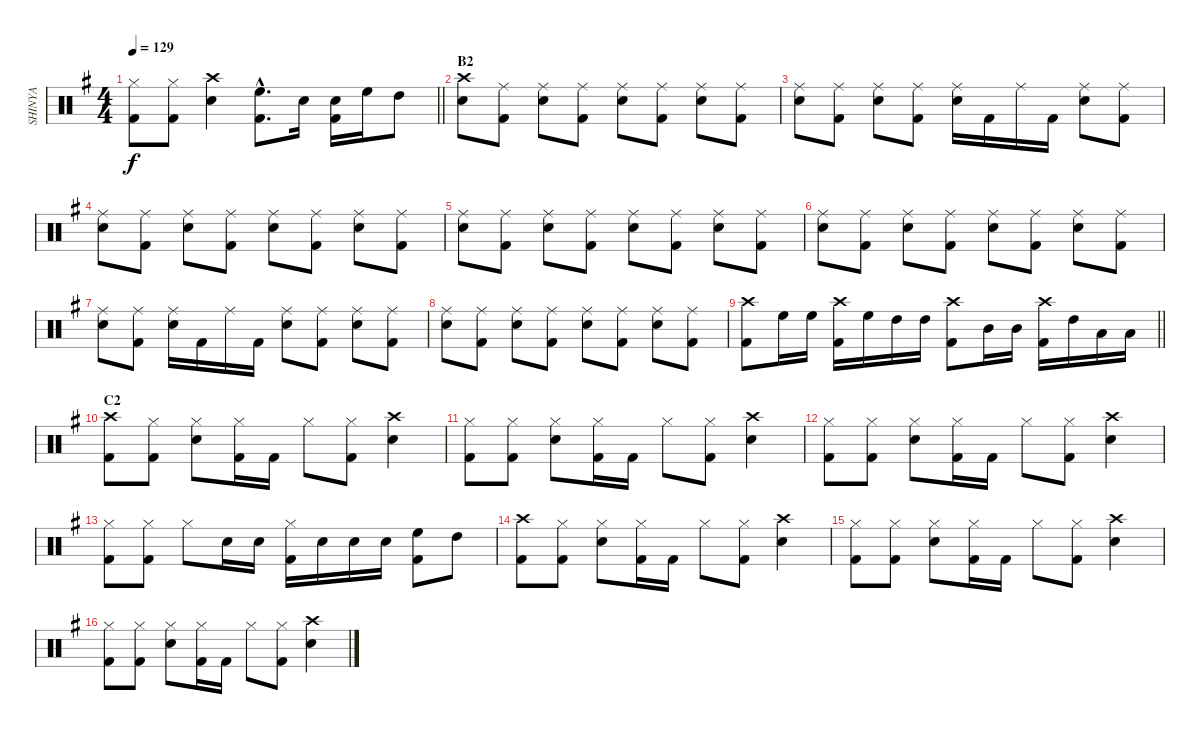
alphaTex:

\track ("SHINYA" "SHINYA") {instrument percussion}
\staff {score}
\articulation defaults
\ts (4 4)
\tempo 129
\clef neutral
\barLineRight lightlight
\ks g
("Hi-Hat (closed)" "Kick (hit) 2").8{dy f} ("Hi-Hat (closed)" "Kick (hit) 2").8 ("Crash high (hit)" "Snare (hit) 2").4 ("High Floor Tom (hit)"{hac} "Kick (hit) 2"{hac}).8{d} "Snare (hit) 2".16 ("Snare (hit) 2" "Kick (hit) 2").16 "High Floor Tom (hit)".16 "High Tom (hit)".8 |
\section ("" "B2")
("Crash high (hit)" "Snare (hit) 2").8 ("Ride (middle)" "Kick (hit) 2").8 ("Ride (middle)" "Snare (hit) 2").8 ("Ride (middle)" "Kick (hit) 2").8 ("Ride (middle)" "Snare (hit) 2").8 ("Ride (middle)" "Kick (hit) 2").8 ("Ride (middle)" "Snare (hit) 2").8 ("Ride (middle)" "Kick (hit) 2").8 |
("Ride (middle)" "Snare (hit) 2").8 ("Ride (middle)" "Kick (hit) 2").8 ("Ride (middle)" "Snare (hit) 2").8 ("Ride (middle)" "Kick (hit) 2").8 ("Ride (middle)" "Snare (hit) 2").16 "Kick (hit) 2".16 "Ride (middle)".16 "Kick (hit) 2".16 ("Ride (middle)" "Snare (hit) 2").8 ("Ride (middle)" "Kick (hit) 2").8 |
("Ride (middle)" "Snare (hit) 2").8 ("Ride (middle)" "Kick (hit) 2").8 ("Ride (middle)" "Snare (hit) 2").8 ("Ride (middle)" "Kick (hit) 2").8 ("Ride (middle)" "Snare (hit) 2").8 ("Ride (middle)" "Kick (hit) 2").8 ("Ride (middle)" "Snare (hit) 2").8 ("Ride (middle)" "Kick (hit) 2").8 |
("Ride (middle)" "Snare (hit) 2").8 ("Ride (middle)" "Kick (hit) 2").8 ("Ride (middle)" "Snare (hit) 2").8 ("Ride (middle)" "Kick (hit) 2").8 ("Ride (middle)" "Snare (hit) 2").8 ("Ride (middle)" "Kick (hit) 2").8 ("Ride (middle)" "Snare (hit) 2").8 ("Ride (middle)" "Kick (hit) 2").8 |
("Ride (middle)" "Snare (hit) 2").8 ("Ride (middle)" "Kick (hit) 2").8 ("Ride (middle)" "Snare (hit) 2").8 ("Ride (middle)" "Kick (hit) 2").8 ("Ride (middle)" "Snare (hit) 2").8 ("Ride (middle)" "Kick (hit) 2").8 ("Ride (middle)" "Snare (hit) 2").8 ("Ride (middle)" "Kick (hit) 2").8 |
("Ride (middle)" "Snare (hit) 2").8 ("Ride (middle)" "Kick (hit) 2").8 ("Ride (middle)" "Snare (hit) 2").16 "Kick (hit) 2".16 "Ride (middle)".16 "Kick (hit) 2".16 ("Ride (middle)" "Snare (hit) 2").8 ("Ride (middle)" "Kick (hit) 2").8 ("Ride (middle)" "Snare (hit) 2").8 ("Ride (middle)" "Kick (hit) 2").8 |
("Ride (middle)" "Snare (hit) 2").8 ("Ride (middle)" "Kick (hit) 2").8 ("Ride (middle)" "Snare (hit) 2").8 ("Ride (middle)" "Kick (hit) 2").8 ("Ride (middle)" "Snare (hit) 2").8 ("Ride (middle)" "Kick (hit) 2").8 ("Ride (middle)" "Snare (hit) 2").8 ("Ride (middle)" "Kick (hit) 2").8 |
\barLineRight lightlight
("Crash high (hit)" "Kick (hit) 2").8 "High Floor Tom (hit)".16 "High Floor Tom (hit)".16 ("Crash high (hit)" "Kick (hit) 2").16 "High Floor Tom (hit)".16 "High Tom (hit)".16 "High Tom (hit)".16 ("Crash high (hit)" "Kick (hit) 2").8 "Mid Tom (hit)".16 "Mid Tom (hit)".16 ("Crash high (hit)" "Kick (hit) 2").16 "High Tom (hit)".16 "Low Tom (hit)".16 "Low Tom (hit)".16 |
\section ("" "C2")
("Crash high (hit)" "Kick (hit) 2").8 ("Hi-Hat (closed)" "Kick (hit) 2").8 ("Hi-Hat (closed)" "Snare (hit) 2").8 ("Hi-Hat (closed)" "Kick (hit) 2").16 "Kick (hit) 2".16 "Hi-Hat (closed)".8 ("Hi-Hat (closed)" "Kick (hit) 2").8 ("Crash high (hit)" "Snare (hit) 2").4 |
("Hi-Hat (closed)" "Kick (hit) 2").8 ("Hi-Hat (closed)" "Kick (hit) 2").8 ("Hi-Hat (closed)" "Snare (hit) 2").8 ("Hi-Hat (closed)" "Kick (hit) 2").16 "Kick (hit) 2".16 "Hi-Hat (closed)".8 ("Hi-Hat (closed)" "Kick (hit) 2").8 ("Crash high (hit)" "Snare (hit) 2").4 |
("Hi-Hat (closed)" "Kick (hit) 2").8 ("Hi-Hat (closed)" "Kick (hit) 2").8 ("Hi-Hat (closed)" "Snare (hit) 2").8 ("Hi-Hat (closed)" "Kick (hit) 2").16 "Kick (hit) 2".16 "Hi-Hat (closed)".8 ("Hi-Hat (closed)" "Kick (hit) 2").8 ("Crash high (hit)" "Snare (hit) 2").4 |
("Hi-Hat (closed)" "Kick (hit) 2").8 ("Hi-Hat (closed)" "Kick (hit) 2").8 "Hi-Hat (closed)".8 "Snare (hit) 2".16 "Snare (hit) 2".16 ("Hi-Hat (closed)" "Kick (hit) 2").16 "Snare (hit) 2".16 "Snare (hit) 2".16 "Snare (hit) 2".16 ("High Floor Tom (hit)" "Kick (hit) 2").8 "High Tom (hit)".8 |
("Crash high (hit)" "Kick (hit) 2").8 ("Hi-Hat (closed)" "Kick (hit) 2").8 ("Hi-Hat (closed)" "Snare (hit) 2").8 ("Hi-Hat (closed)" "Kick (hit) 2").16 "Kick (hit) 2".16 "Hi-Hat (closed)".8 ("Hi-Hat (closed)" "Kick (hit) 2").8 ("Crash high (hit)" "Snare (hit) 2").4 |
("Hi-Hat (closed)" "Kick (hit) 2").8 ("Hi-Hat (closed)" "Kick (hit) 2").8 ("Hi-Hat (closed)" "Snare (hit) 2").8 ("Hi-Hat (closed)" "Kick (hit) 2").16 "Kick (hit) 2".16 "Hi-Hat (closed)".8 ("Hi-Hat (closed)" "Kick (hit) 2").8 ("Crash high (hit)" "Snare (hit) 2").4 |
("Hi-Hat (closed)" "Kick (hit) 2").8 ("Hi-Hat (closed)" "Kick (hit) 2").8 ("Hi-Hat (closed)" "Snare (hit) 2").8 ("Hi-Hat (closed)" "Kick (hit) 2").16 "Kick (hit) 2".16 "Hi-Hat (closed)".8 ("Hi-Hat (closed)" "Kick (hit) 2").8 ("Crash high (hit)" "Snare (hit) 2").4
